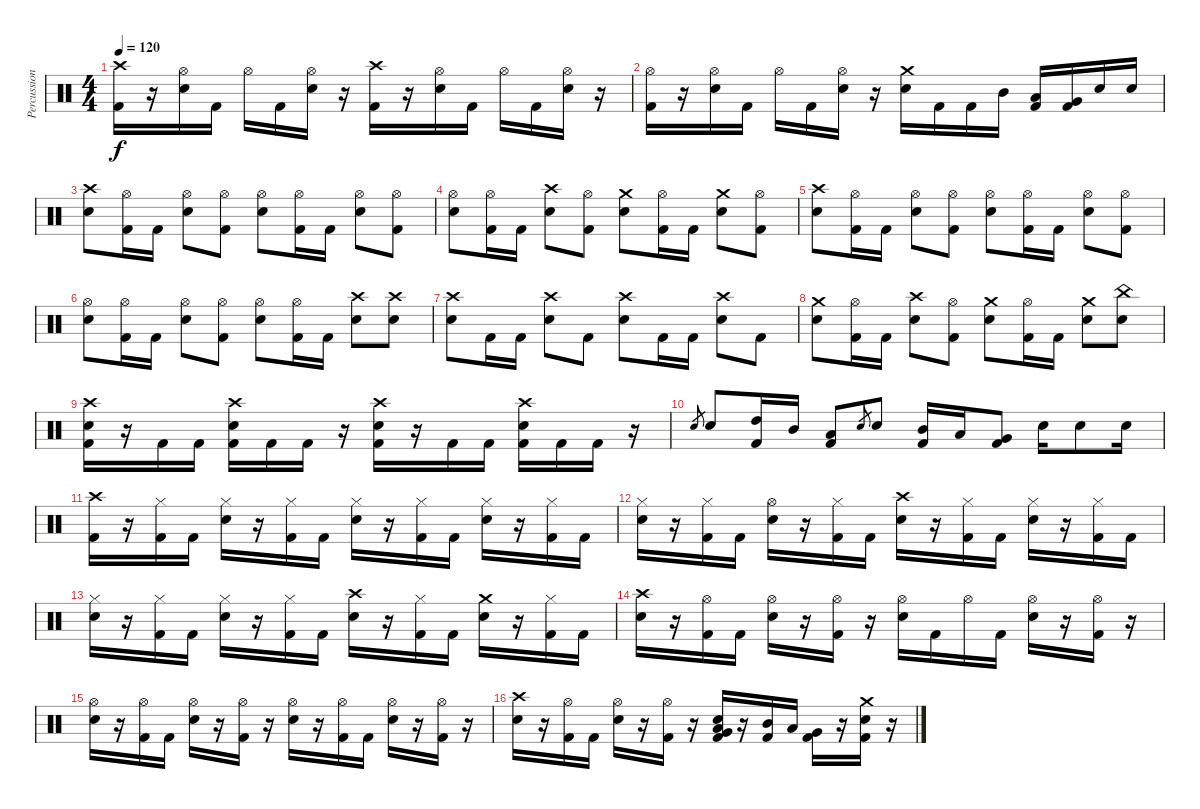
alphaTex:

\track ("Percussion" "Percussion") {instrument percussion}
\staff {score}
\articulation defaults
\ts (4 4)
\tempo 120
\clef neutral
\ks c
("Crash high (hit)" "Kick (hit) 2").16{dy f} r.16 ("Hi-Hat (open)" "Snare (hit) 2").16 "Kick (hit) 2".16 "Hi-Hat (open)".16 "Kick (hit) 2".16 ("Hi-Hat (open)" "Snare (hit) 2").16 r.16 ("Crash high (hit)" "Kick (hit) 2").16 r.16 ("Hi-Hat (open)" "Snare (hit) 2").16 "Kick (hit) 2".16 "Hi-Hat (open)".16 "Kick (hit) 2".16 ("Hi-Hat (open)" "Snare (hit) 2").16 r.16 |
("Hi-Hat (open)" "Kick (hit) 2").16 r.16 ("Hi-Hat (open)" "Snare (hit) 2").16 "Kick (hit) 2".16 "Hi-Hat (open)".16 "Kick (hit) 2".16 ("Hi-Hat (open)" "Snare (hit) 2").16 r.16 ("Crash medium (hit)" "Snare (hit) 2").16 "Kick (hit) 2".16 "Kick (hit) 2".16 "Mid Tom (hit)".16 ("Low Tom (hit)" "Kick (hit) 2").16 ("Very Low Tom (hit)" "Kick (hit) 2").16 "Snare (hit) 2".16 "Snare (hit) 2".16 |
("Crash high (hit)" "Snare (hit) 2").8 ("Hi-Hat (open)" "Kick (hit) 2").16 "Kick (hit) 2".16 ("Hi-Hat (open)" "Snare (hit) 2").8 ("Hi-Hat (open)" "Kick (hit) 2").8 ("Hi-Hat (open)" "Snare (hit) 2").8 ("Hi-Hat (open)" "Kick (hit) 2").16 "Kick (hit) 2".16 ("Hi-Hat (open)" "Snare (hit) 2").8 ("Hi-Hat (open)" "Kick (hit) 2").8 |
("Hi-Hat (open)" "Snare (hit) 2").8 ("Hi-Hat (open)" "Kick (hit) 2").16 "Kick (hit) 2".16 ("Crash high (hit)" "Snare (hit) 2").8 ("Hi-Hat (open)" "Kick (hit) 2").8 ("Crash medium (hit)" "Snare (hit) 2").8 ("Hi-Hat (open)" "Kick (hit) 2").16 "Kick (hit) 2".16 ("Crash medium (hit)" "Snare (hit) 2").8 ("Hi-Hat (open)" "Kick (hit) 2").8 |
("Crash high (hit)" "Snare (hit) 2").8 ("Hi-Hat (open)" "Kick (hit) 2").16 "Kick (hit) 2".16 ("Hi-Hat (open)" "Snare (hit) 2").8 ("Hi-Hat (open)" "Kick (hit) 2").8 ("Hi-Hat (open)" "Snare (hit) 2").8 ("Hi-Hat (open)" "Kick (hit) 2").16 "Kick (hit) 2".16 ("Hi-Hat (open)" "Snare (hit) 2").8 ("Hi-Hat (open)" "Kick (hit) 2").8 |
("Hi-Hat (open)" "Snare (hit) 2").8 ("Hi-Hat (open)" "Kick (hit) 2").16 "Kick (hit) 2".16 ("Hi-Hat (open)" "Snare (hit) 2").8 ("Hi-Hat (open)" "Kick (hit) 2").8 ("Hi-Hat (open)" "Snare (hit) 2").8 ("Hi-Hat (open)" "Kick (hit) 2").16 "Kick (hit) 2".16 ("Crash high (hit)" "Snare (hit) 2").8 ("Crash high (hit)" "Snare (hit) 2").8 |
("Crash high (hit)" "Snare (hit) 2").8 "Kick (hit) 2".16 "Kick (hit) 2".16 ("Crash high (hit)" "Snare (hit) 2").8 "Kick (hit) 2".8 ("Crash high (hit)" "Snare (hit) 2").8 "Kick (hit) 2".16 "Kick (hit) 2".16 ("Crash high (hit)" "Snare (hit) 2").8 "Kick (hit) 2".8 |
("Crash medium (hit)" "Snare (hit) 2").8 ("Hi-Hat (open)" "Kick (hit) 2").16 "Kick (hit) 2".16 ("Crash high (hit)" "Snare (hit) 2").8 ("Hi-Hat (open)" "Kick (hit) 2").8 ("Crash medium (hit)" "Snare (hit) 2").8 ("Hi-Hat (open)" "Kick (hit) 2").16 "Kick (hit) 2".16 ("Crash medium (hit)" "Snare (hit) 2").8 ("China (hit)" "Snare (hit) 2").8 |
("Crash high (hit)" "Snare (hit) 2" "Kick (hit) 2").16 r.16 "Kick (hit) 2".16 "Kick (hit) 2".16 ("Crash high (hit)" "Snare (hit) 2" "Kick (hit) 2").16 "Kick (hit) 2".16 "Kick (hit) 2".16 r.16 ("Crash high (hit)" "Snare (hit) 2" "Kick (hit) 2").16 r.16 "Kick (hit) 2".16 "Kick (hit) 2".16 ("Crash high (hit)" "Snare (hit) 2" "Kick (hit) 2").16 "Kick (hit) 2".16 "Kick (hit) 2".16 r.16 |
"Snare (hit) 2".8{gr} "Snare (hit) 2".8 ("High Tom (hit)" "Kick (hit) 2").16 "Mid Tom (hit)".16 ("Low Tom (hit)" "Kick (hit) 2").8 "Snare (hit) 2".8{gr} "Snare (hit) 2".8 ("Mid Tom (hit)" "Kick (hit) 2").16 "Low Tom (hit)".16 ("Very Low Tom (hit)" "Kick (hit) 2").8 "Snare (hit) 2".16 "Snare (hit) 2".8 "Snare (hit) 2".16 |
("Crash high (hit)" "Kick (hit) 2").16 r.16 ("Hi-Hat (closed)" "Kick (hit) 2").16 "Kick (hit) 2".16 ("Hi-Hat (closed)" "Snare (hit) 2").16 r.16 ("Hi-Hat (closed)" "Kick (hit) 2").16 "Kick (hit) 2".16 ("Hi-Hat (closed)" "Snare (hit) 2").16 r.16 ("Hi-Hat (closed)" "Kick (hit) 2").16 "Kick (hit) 2".16 ("Hi-Hat (closed)" "Snare (hit) 2").16 r.16 ("Hi-Hat (closed)" "Kick (hit) 2").16 "Kick (hit) 2".16 |
("Hi-Hat (closed)" "Snare (hit) 2").16 r.16 ("Hi-Hat (closed)" "Kick (hit) 2").16 "Kick (hit) 2".16 ("Hi-Hat (open)" "Snare (hit) 2").16 r.16 ("Hi-Hat (closed)" "Kick (hit) 2").16 "Kick (hit) 2".16 ("Crash high (hit)" "Snare (hit) 2").16 r.16 ("Hi-Hat (closed)" "Kick (hit) 2").16 "Kick (hit) 2".16 ("Hi-Hat (closed)" "Snare (hit) 2").16 r.16 ("Hi-Hat (closed)" "Kick (hit) 2").16 "Kick (hit) 2".16 |
("Hi-Hat (closed)" "Snare (hit) 2").16 r.16 ("Hi-Hat (closed)" "Kick (hit) 2").16 "Kick (hit) 2".16 ("Hi-Hat (closed)" "Snare (hit) 2").16 r.16 ("Hi-Hat (closed)" "Kick (hit) 2").16 "Kick (hit) 2".16 ("Crash high (hit)" "Snare (hit) 2").16 r.16 ("Hi-Hat (closed)" "Kick (hit) 2").16 "Kick (hit) 2".16 ("Crash medium (hit)" "Snare (hit) 2").16 r.16 ("Hi-Hat (closed)" "Kick (hit) 2").16 "Kick (hit) 2".16 |
("Crash high (hit)" "Snare (hit) 2").16 r.16 ("Hi-Hat (open)" "Kick (hit) 2").16 "Kick (hit) 2".16 ("Hi-Hat (open)" "Snare (hit) 2").16 r.16 ("Hi-Hat (open)" "Kick (hit) 2").16 r.16 ("Hi-Hat (open)" "Snare (hit) 2").16 "Kick (hit) 2".16 "Hi-Hat (open)".16 "Kick (hit) 2".16 ("Hi-Hat (open)" "Snare (hit) 2").16 r.16 ("Hi-Hat (open)" "Kick (hit) 2").16 r.16 |
("Hi-Hat (open)" "Snare (hit) 2").16 r.16 ("Hi-Hat (open)" "Kick (hit) 2").16 "Kick (hit) 2".16 ("Hi-Hat (open)" "Snare (hit) 2").16 r.16 ("Hi-Hat (open)" "Kick (hit) 2").16 r.16 ("Hi-Hat (open)" "Snare (hit) 2").16 r.16 ("Hi-Hat (open)" "Kick (hit) 2").16 "Kick (hit) 2".16 ("Hi-Hat (open)" "Snare (hit) 2").16 r.16 ("Hi-Hat (open)" "Kick (hit) 2").16 r.16 |
("Crash high (hit)" "Snare (hit) 2").16 r.16 ("Hi-Hat (open)" "Kick (hit) 2").16 "Kick (hit) 2".16 ("Hi-Hat (open)" "Snare (hit) 2").16 r.16 ("Hi-Hat (open)" "Kick (hit) 2").16 r.16 ("Very Low Tom (hit)" "Snare (hit) 2" "Low Floor Tom (hit)" "Kick (hit) 2").16 r.16 ("Mid Tom (hit)" "Kick (hit) 2").16 "Low Tom (hit)".16 ("Very Low Tom (hit)" "Kick (hit) 2").16 r.16 ("Crash medium (hit)" "Snare (hit) 2" "Kick (hit) 2").16 r.16
